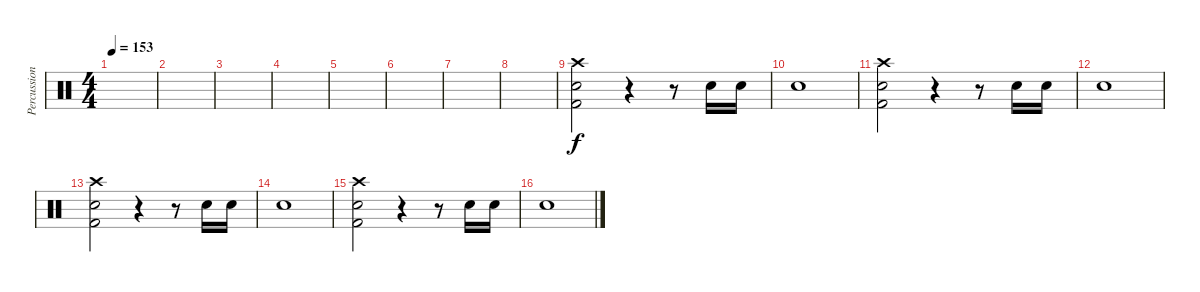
\track ("Percussion" "Percussion") {instrument percussion}
\staff {score}
\articulation defaults
\ts (4 4)
\tempo 153
\clef neutral
\ks c
|
|
|
|
|
|
|
|
("Crash high (hit)" "Snare (hit) 2" "Kick (hit) 2").2 r.4 r.8 "Snare (hit) 2".16 "Snare (hit) 2".16 |
"Snare (hit) 2".1 |
("Crash high (hit)" "Snare (hit) 2" "Kick (hit) 2").2 r.4 r.8 "Snare (hit) 2".16 "Snare (hit) 2".16 |
"Snare (hit) 2".1 |
("Crash high (hit)" "Snare (hit) 2" "Kick (hit) 2").2 r.4 r.8 "Snare (hit) 2".16 "Snare (hit) 2".16 |
"Snare (hit) 2".1 |
("Crash high (hit)" "Snare (hit) 2" "Kick (hit) 2").2 r.4 r.8 "Snare (hit) 2".16 "Snare (hit) 2".16 |
"Snare (hit) 2".1
